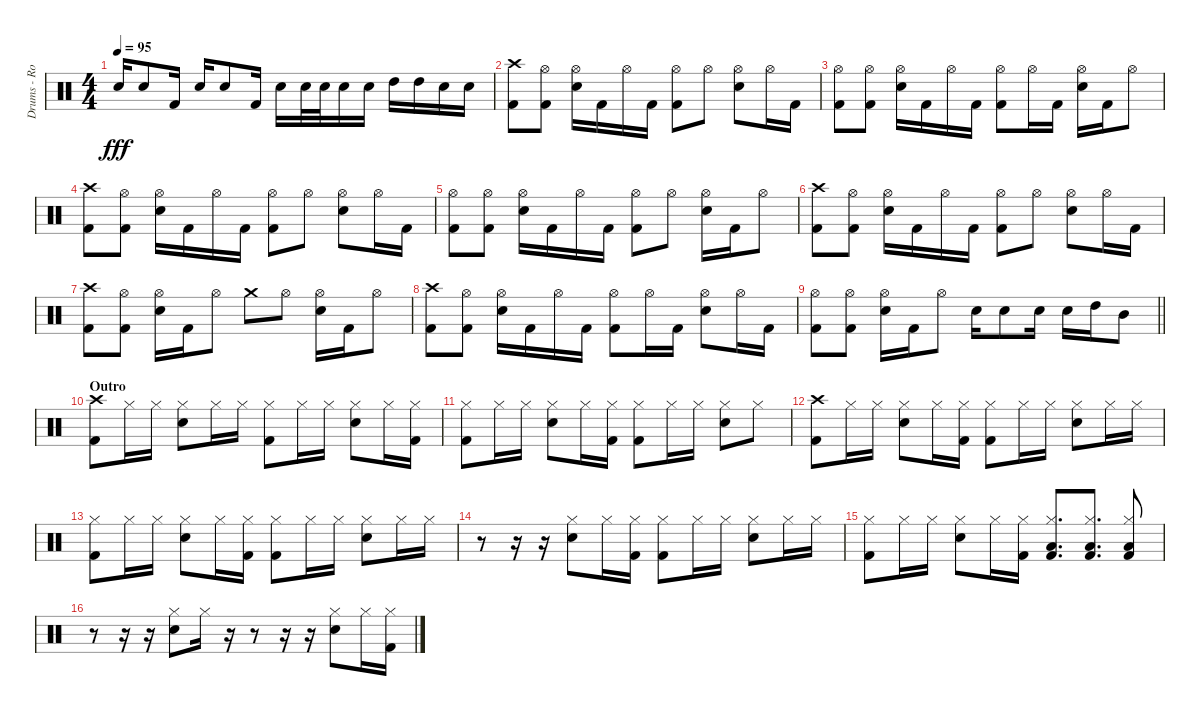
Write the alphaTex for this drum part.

\track ("Drums - Rob Bourdon" "Drums - Ro") {instrument percussion}
\staff {score}
\articulation defaults
\ts (4 4)
\tempo 95
\clef neutral
\ks c "Snare (hit) 2".16{dy fff} "Snare (hit) 2".8 "Kick (hit) 2".16 "Snare (hit) 2".16 "Snare (hit) 2".8 "Kick (hit) 2".16 "Snare (hit) 2".16 "Snare (hit) 2".32 "Snare (hit) 2".32 "Snare (hit) 2".16 "Snare (hit) 2".16 "High Tom (hit)".16 "High Tom (hit)".16 "Snare (hit) 2".16 "Snare (hit) 2".16
|
("Crash high (hit)" "Kick (hit) 2").8 ("Hi-Hat (open)" "Kick (hit) 2").8 ("Hi-Hat (open)" "Snare (hit) 2").16 "Kick (hit) 2".16 "Hi-Hat (open)".16 "Kick (hit) 2".16 ("Hi-Hat (open)" "Kick (hit) 2").8 "Hi-Hat (open)".8 ("Hi-Hat (open)" "Snare (hit) 2").8 "Hi-Hat (open)".16 "Kick (hit) 2".16 |
("Hi-Hat (open)" "Kick (hit) 2").8 ("Hi-Hat (open)" "Kick (hit) 2").8 ("Hi-Hat (open)" "Snare (hit) 2").16 "Kick (hit) 2".16 "Hi-Hat (open)".16 "Kick (hit) 2".16 ("Hi-Hat (open)" "Kick (hit) 2").8 "Hi-Hat (open)".16 "Kick (hit) 2".16 ("Hi-Hat (open)" "Snare (hit) 2").16 "Kick (hit) 2".16 "Hi-Hat (open)".8 |
("Crash high (hit)" "Kick (hit) 2").8 ("Hi-Hat (open)" "Kick (hit) 2").8 ("Hi-Hat (open)" "Snare (hit) 2").16 "Kick (hit) 2".16 "Hi-Hat (open)".16 "Kick (hit) 2".16 ("Hi-Hat (open)" "Kick (hit) 2").8 "Hi-Hat (open)".8 ("Hi-Hat (open)" "Snare (hit) 2").8 "Hi-Hat (open)".16 "Kick (hit) 2".16 |
("Hi-Hat (open)" "Kick (hit) 2").8 ("Hi-Hat (open)" "Kick (hit) 2").8 ("Hi-Hat (open)" "Snare (hit) 2").16 "Kick (hit) 2".16 "Hi-Hat (open)".16 "Kick (hit) 2".16 ("Hi-Hat (open)" "Kick (hit) 2").8 "Hi-Hat (open)".8 ("Hi-Hat (open)" "Snare (hit) 2").16 "Kick (hit) 2".16 "Hi-Hat (open)".8 |
("Crash high (hit)" "Kick (hit) 2").8 ("Hi-Hat (open)" "Kick (hit) 2").8 ("Hi-Hat (open)" "Snare (hit) 2").16 "Kick (hit) 2".16 "Hi-Hat (open)".16 "Kick (hit) 2".16 ("Hi-Hat (open)" "Kick (hit) 2").8 "Hi-Hat (open)".8 ("Hi-Hat (open)" "Snare (hit) 2").8 "Hi-Hat (open)".16 "Kick (hit) 2".16 |
("Crash high (hit)" "Kick (hit) 2").8 ("Hi-Hat (open)" "Kick (hit) 2").8 ("Hi-Hat (open)" "Snare (hit) 2").16 "Kick (hit) 2".16 "Hi-Hat (open)".8 "Crash medium (hit)".8 "Hi-Hat (open)".8 ("Hi-Hat (open)" "Snare (hit) 2").16 "Kick (hit) 2".16 "Hi-Hat (open)".8 |
("Crash high (hit)" "Kick (hit) 2").8 ("Hi-Hat (open)" "Kick (hit) 2").8 ("Hi-Hat (open)" "Snare (hit) 2").16 "Kick (hit) 2".16 "Hi-Hat (open)".16 "Kick (hit) 2".16 ("Hi-Hat (open)" "Kick (hit) 2").8 "Hi-Hat (open)".16 "Kick (hit) 2".16 ("Hi-Hat (open)" "Snare (hit) 2").8 "Hi-Hat (open)".16 "Kick (hit) 2".16 |
\barLineRight lightlight
("Hi-Hat (open)" "Kick (hit) 2").8 ("Hi-Hat (open)" "Kick (hit) 2").8 ("Hi-Hat (open)" "Snare (hit) 2").16 "Kick (hit) 2".16 "Hi-Hat (open)".8 "Snare (hit) 2".16 "Snare (hit) 2".8 "Snare (hit) 2".16 "Snare (hit) 2".16 "High Tom (hit)".16 "Mid Tom (hit)".8 |
\section ("" "Outro")
("Crash high (hit)" "Kick (hit) 2").8 "Hi-Hat (closed)".16 "Hi-Hat (closed)".16 ("Hi-Hat (closed)" "Snare (hit) 2").8 "Hi-Hat (closed)".16 "Hi-Hat (closed)".16 ("Hi-Hat (closed)" "Kick (hit) 2").8 "Hi-Hat (closed)".16 "Hi-Hat (closed)".16 ("Hi-Hat (closed)" "Snare (hit) 2").8 "Hi-Hat (closed)".16 ("Hi-Hat (closed)" "Kick (hit) 2").16 |
("Hi-Hat (closed)" "Kick (hit) 2").8 "Hi-Hat (closed)".16 "Hi-Hat (closed)".16 ("Hi-Hat (closed)" "Snare (hit) 2").8 "Hi-Hat (closed)".16 ("Hi-Hat (closed)" "Kick (hit) 2").16 ("Hi-Hat (closed)" "Kick (hit) 2").8 "Hi-Hat (closed)".16 "Hi-Hat (closed)".16 ("Hi-Hat (closed)" "Snare (hit) 2").8 "Hi-Hat (closed)".8 |
("Crash high (hit)" "Kick (hit) 2").8 "Hi-Hat (closed)".16 "Hi-Hat (closed)".16 ("Hi-Hat (closed)" "Snare (hit) 2").8 "Hi-Hat (closed)".16 ("Hi-Hat (closed)" "Kick (hit) 2").16 ("Hi-Hat (closed)" "Kick (hit) 2").8 "Hi-Hat (closed)".16 "Hi-Hat (closed)".16 ("Hi-Hat (closed)" "Snare (hit) 2").8 "Hi-Hat (closed)".16 "Hi-Hat (closed)".16 |
("Hi-Hat (closed)" "Kick (hit) 2").8 "Hi-Hat (closed)".16 "Hi-Hat (closed)".16 ("Hi-Hat (closed)" "Snare (hit) 2").8 "Hi-Hat (closed)".16 ("Hi-Hat (closed)" "Kick (hit) 2").16 ("Hi-Hat (closed)" "Kick (hit) 2").8 "Hi-Hat (closed)".16 "Hi-Hat (closed)".16 ("Hi-Hat (closed)" "Snare (hit) 2").8 "Hi-Hat (closed)".16 "Hi-Hat (closed)".16 |
r.8 r.16 r.16 ("Hi-Hat (closed)" "Snare (hit) 2").8 "Hi-Hat (closed)".16 ("Hi-Hat (closed)" "Kick (hit) 2").16 ("Hi-Hat (closed)" "Kick (hit) 2").8 "Hi-Hat (closed)".16 "Hi-Hat (closed)".16 ("Hi-Hat (closed)" "Snare (hit) 2").8 "Hi-Hat (closed)".16 "Hi-Hat (closed)".16 |
("Hi-Hat (closed)" "Kick (hit) 2").8 "Hi-Hat (closed)".16 "Hi-Hat (closed)".16 ("Hi-Hat (closed)" "Snare (hit) 2").8 "Hi-Hat (closed)".16 ("Hi-Hat (closed)" "Kick (hit) 2").16 ("Hi-Hat (closed)" "Low Tom (hit)" "Kick (hit) 2").8{d} ("Hi-Hat (closed)" "Low Tom (hit)" "Kick (hit) 2").8{d} ("Hi-Hat (closed)" "Low Tom (hit)" "Kick (hit) 2").8 |
r.8 r.16 r.16 ("Hi-Hat (closed)" "Snare (hit) 2").8 "Hi-Hat (closed)".16 r.16 r.8 r.16 r.16 ("Hi-Hat (closed)" "Snare (hit) 2").8 "Hi-Hat (closed)".16 ("Hi-Hat (closed)" "Kick (hit) 2").16
